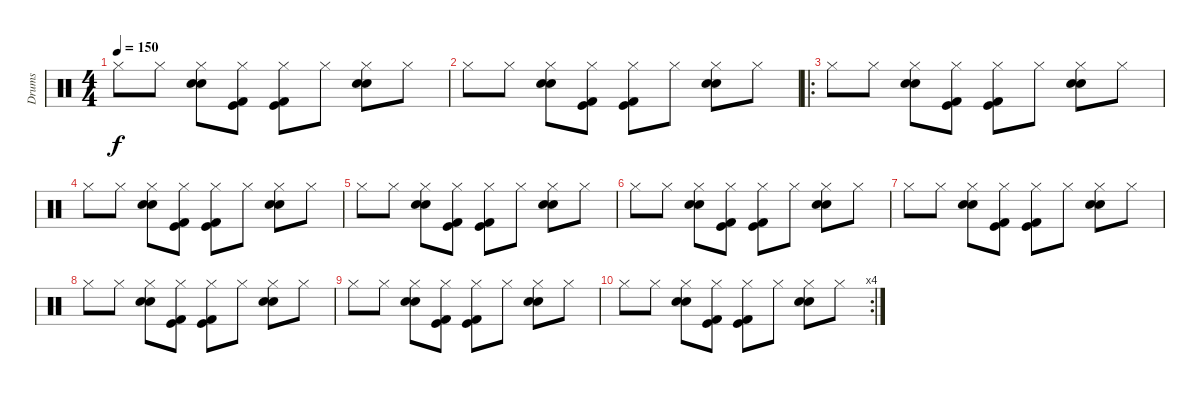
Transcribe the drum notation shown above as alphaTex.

\track ("Drums" "Drums") {instrument percussion}
\staff {score}
\articulation defaults
\ts (4 4)
\tempo 150
\clef neutral
\ks c "Hi-Hat (closed)".8{dy f} "Hi-Hat (closed)".8
("Hi-Hat (closed)" "Snare (hit) 2" "Electric Snare (hit)").8 ("Hi-Hat (closed)" "Kick (hit) 2" "Kick (hit)").8 ("Hi-Hat (closed)" "Kick (hit) 2" "Kick (hit)").8 "Hi-Hat (closed)".8 ("Hi-Hat (closed)" "Snare (hit) 2" "Electric Snare (hit)").8 "Hi-Hat (closed)".8 |
"Hi-Hat (closed)".8 "Hi-Hat (closed)".8 ("Hi-Hat (closed)" "Snare (hit) 2" "Electric Snare (hit)").8 ("Hi-Hat (closed)" "Kick (hit) 2" "Kick (hit)").8 ("Hi-Hat (closed)" "Kick (hit) 2" "Kick (hit)").8 "Hi-Hat (closed)".8 ("Hi-Hat (closed)" "Snare (hit) 2" "Electric Snare (hit)").8 "Hi-Hat (closed)".8 |
\ro "Hi-Hat (closed)".8 "Hi-Hat (closed)".8
("Hi-Hat (closed)" "Snare (hit) 2" "Electric Snare (hit)").8 ("Hi-Hat (closed)" "Kick (hit) 2" "Kick (hit)").8 ("Hi-Hat (closed)" "Kick (hit) 2" "Kick (hit)").8 "Hi-Hat (closed)".8 ("Hi-Hat (closed)" "Snare (hit) 2" "Electric Snare (hit)").8 "Hi-Hat (closed)".8 |
"Hi-Hat (closed)".8 "Hi-Hat (closed)".8 ("Hi-Hat (closed)" "Snare (hit) 2" "Electric Snare (hit)").8 ("Hi-Hat (closed)" "Kick (hit) 2" "Kick (hit)").8 ("Hi-Hat (closed)" "Kick (hit) 2" "Kick (hit)").8 "Hi-Hat (closed)".8 ("Hi-Hat (closed)" "Snare (hit) 2" "Electric Snare (hit)").8 "Hi-Hat (closed)".8 |
"Hi-Hat (closed)".8 "Hi-Hat (closed)".8 ("Hi-Hat (closed)" "Snare (hit) 2" "Electric Snare (hit)").8 ("Hi-Hat (closed)" "Kick (hit) 2" "Kick (hit)").8 ("Hi-Hat (closed)" "Kick (hit) 2" "Kick (hit)").8 "Hi-Hat (closed)".8 ("Hi-Hat (closed)" "Snare (hit) 2" "Electric Snare (hit)").8 "Hi-Hat (closed)".8 |
"Hi-Hat (closed)".8 "Hi-Hat (closed)".8 ("Hi-Hat (closed)" "Snare (hit) 2" "Electric Snare (hit)").8 ("Hi-Hat (closed)" "Kick (hit) 2" "Kick (hit)").8 ("Hi-Hat (closed)" "Kick (hit) 2" "Kick (hit)").8 "Hi-Hat (closed)".8 ("Hi-Hat (closed)" "Snare (hit) 2" "Electric Snare (hit)").8 "Hi-Hat (closed)".8 |
"Hi-Hat (closed)".8 "Hi-Hat (closed)".8 ("Hi-Hat (closed)" "Snare (hit) 2" "Electric Snare (hit)").8 ("Hi-Hat (closed)" "Kick (hit) 2" "Kick (hit)").8 ("Hi-Hat (closed)" "Kick (hit) 2" "Kick (hit)").8 "Hi-Hat (closed)".8 ("Hi-Hat (closed)" "Snare (hit) 2" "Electric Snare (hit)").8 "Hi-Hat (closed)".8 |
"Hi-Hat (closed)".8 "Hi-Hat (closed)".8 ("Hi-Hat (closed)" "Snare (hit) 2" "Electric Snare (hit)").8 ("Hi-Hat (closed)" "Kick (hit) 2" "Kick (hit)").8 ("Hi-Hat (closed)" "Kick (hit) 2" "Kick (hit)").8 "Hi-Hat (closed)".8 ("Hi-Hat (closed)" "Snare (hit) 2" "Electric Snare (hit)").8 "Hi-Hat (closed)".8 |
"Hi-Hat (closed)".8 "Hi-Hat (closed)".8 ("Hi-Hat (closed)" "Snare (hit) 2" "Electric Snare (hit)").8 ("Hi-Hat (closed)" "Kick (hit) 2" "Kick (hit)").8 ("Hi-Hat (closed)" "Kick (hit) 2" "Kick (hit)").8 "Hi-Hat (closed)".8 ("Hi-Hat (closed)" "Snare (hit) 2" "Electric Snare (hit)").8 "Hi-Hat (closed)".8 |
\rc 4 "Hi-Hat (closed)".8 "Hi-Hat (closed)".8
("Hi-Hat (closed)" "Snare (hit) 2" "Electric Snare (hit)").8 ("Hi-Hat (closed)" "Kick (hit) 2" "Kick (hit)").8 ("Hi-Hat (closed)" "Kick (hit) 2" "Kick (hit)").8 "Hi-Hat (closed)".8 ("Hi-Hat (closed)" "Snare (hit) 2" "Electric Snare (hit)").8 "Hi-Hat (closed)".8
